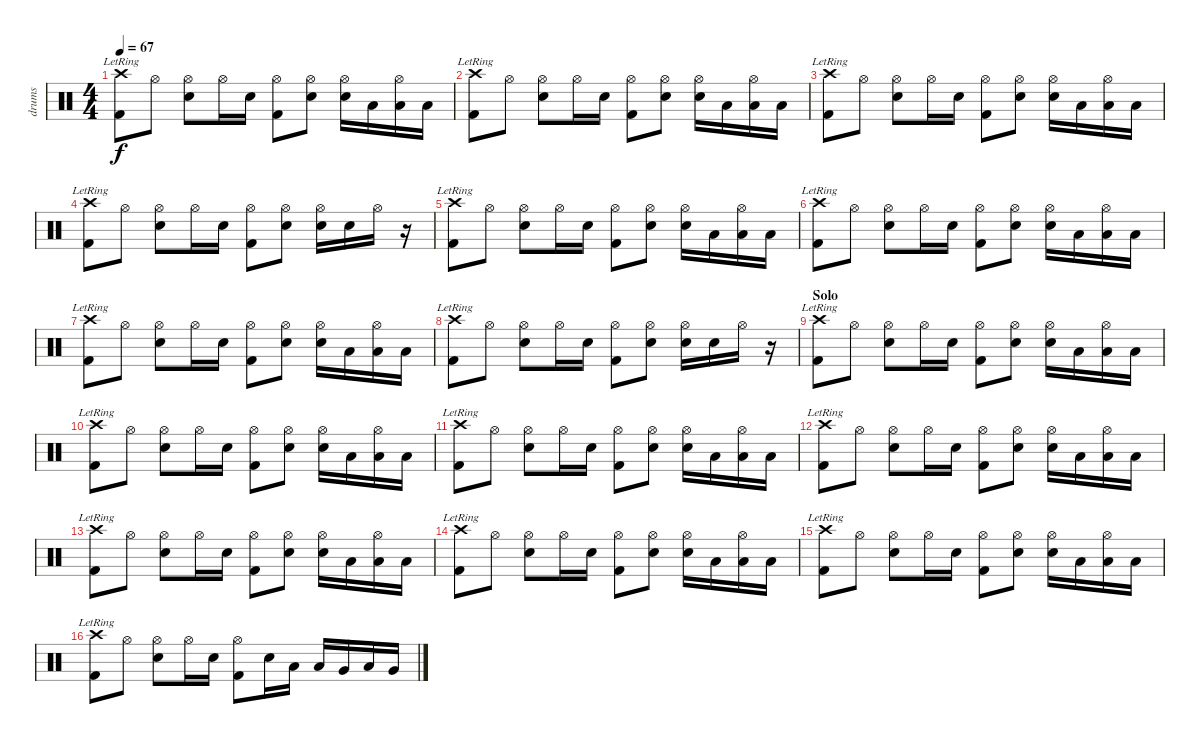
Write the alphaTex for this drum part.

\track ("drums" "drums") {instrument percussion}
\staff {score}
\articulation defaults
\ts (4 4)
\tempo 67
\clef neutral
\ks c
("Crash high (hit)"{lr} "Kick (hit) 2").8{dy f} "Hi-Hat (open)".8 ("Hi-Hat (open)" "Snare (hit) 2").8 "Hi-Hat (open)".16 "Snare (hit) 2".16 ("Hi-Hat (open)" "Kick (hit) 2").8 ("Hi-Hat (open)" "Snare (hit) 2").8 ("Hi-Hat (open)" "Snare (hit) 2").16 "Low Tom (hit)".16 ("Hi-Hat (open)" "Low Tom (hit)").16 "Low Tom (hit)".16 |
("Crash high (hit)"{lr} "Kick (hit) 2").8 "Hi-Hat (open)".8 ("Hi-Hat (open)" "Snare (hit) 2").8 "Hi-Hat (open)".16 "Snare (hit) 2".16 ("Hi-Hat (open)" "Kick (hit) 2").8 ("Hi-Hat (open)" "Snare (hit) 2").8 ("Hi-Hat (open)" "Snare (hit) 2").16 "Low Tom (hit)".16 ("Hi-Hat (open)" "Low Tom (hit)").16 "Low Tom (hit)".16 |
("Crash high (hit)"{lr} "Kick (hit) 2").8 "Hi-Hat (open)".8 ("Hi-Hat (open)" "Snare (hit) 2").8 "Hi-Hat (open)".16 "Snare (hit) 2".16 ("Hi-Hat (open)" "Kick (hit) 2").8 ("Hi-Hat (open)" "Snare (hit) 2").8 ("Hi-Hat (open)" "Snare (hit) 2").16 "Low Tom (hit)".16 ("Hi-Hat (open)" "Low Tom (hit)").16 "Low Tom (hit)".16 |
("Crash high (hit)"{lr} "Kick (hit) 2").8 "Hi-Hat (open)".8 ("Hi-Hat (open)" "Snare (hit) 2").8 "Hi-Hat (open)".16 "Snare (hit) 2".16 ("Hi-Hat (open)" "Kick (hit) 2").8 ("Hi-Hat (open)" "Snare (hit) 2").8 ("Hi-Hat (open)" "Snare (hit) 2").16 "Snare (hit) 2".16 "Hi-Hat (open)".16 r.16 |
("Crash high (hit)"{lr} "Kick (hit) 2").8 "Hi-Hat (open)".8 ("Hi-Hat (open)" "Snare (hit) 2").8 "Hi-Hat (open)".16 "Snare (hit) 2".16 ("Hi-Hat (open)" "Kick (hit) 2").8 ("Hi-Hat (open)" "Snare (hit) 2").8 ("Hi-Hat (open)" "Snare (hit) 2").16 "Low Tom (hit)".16 ("Hi-Hat (open)" "Low Tom (hit)").16 "Low Tom (hit)".16 |
("Crash high (hit)"{lr} "Kick (hit) 2").8 "Hi-Hat (open)".8 ("Hi-Hat (open)" "Snare (hit) 2").8 "Hi-Hat (open)".16 "Snare (hit) 2".16 ("Hi-Hat (open)" "Kick (hit) 2").8 ("Hi-Hat (open)" "Snare (hit) 2").8 ("Hi-Hat (open)" "Snare (hit) 2").16 "Low Tom (hit)".16 ("Hi-Hat (open)" "Low Tom (hit)").16 "Low Tom (hit)".16 |
("Crash high (hit)"{lr} "Kick (hit) 2").8 "Hi-Hat (open)".8 ("Hi-Hat (open)" "Snare (hit) 2").8 "Hi-Hat (open)".16 "Snare (hit) 2".16 ("Hi-Hat (open)" "Kick (hit) 2").8 ("Hi-Hat (open)" "Snare (hit) 2").8 ("Hi-Hat (open)" "Snare (hit) 2").16 "Low Tom (hit)".16 ("Hi-Hat (open)" "Low Tom (hit)").16 "Low Tom (hit)".16 |
("Crash high (hit)"{lr} "Kick (hit) 2").8 "Hi-Hat (open)".8 ("Hi-Hat (open)" "Snare (hit) 2").8 "Hi-Hat (open)".16 "Snare (hit) 2".16 ("Hi-Hat (open)" "Kick (hit) 2").8 ("Hi-Hat (open)" "Snare (hit) 2").8 ("Hi-Hat (open)" "Snare (hit) 2").16 "Snare (hit) 2".16 "Hi-Hat (open)".16 r.16 |
\section ("" "Solo")
("Crash high (hit)"{lr} "Kick (hit) 2").8 "Hi-Hat (open)".8 ("Hi-Hat (open)" "Snare (hit) 2").8 "Hi-Hat (open)".16 "Snare (hit) 2".16 ("Hi-Hat (open)" "Kick (hit) 2").8 ("Hi-Hat (open)" "Snare (hit) 2").8 ("Hi-Hat (open)" "Snare (hit) 2").16 "Low Tom (hit)".16 ("Hi-Hat (open)" "Low Tom (hit)").16 "Low Tom (hit)".16 |
("Crash high (hit)"{lr} "Kick (hit) 2").8 "Hi-Hat (open)".8 ("Hi-Hat (open)" "Snare (hit) 2").8 "Hi-Hat (open)".16 "Snare (hit) 2".16 ("Hi-Hat (open)" "Kick (hit) 2").8 ("Hi-Hat (open)" "Snare (hit) 2").8 ("Hi-Hat (open)" "Snare (hit) 2").16 "Low Tom (hit)".16 ("Hi-Hat (open)" "Low Tom (hit)").16 "Low Tom (hit)".16 |
("Crash high (hit)"{lr} "Kick (hit) 2").8 "Hi-Hat (open)".8 ("Hi-Hat (open)" "Snare (hit) 2").8 "Hi-Hat (open)".16 "Snare (hit) 2".16 ("Hi-Hat (open)" "Kick (hit) 2").8 ("Hi-Hat (open)" "Snare (hit) 2").8 ("Hi-Hat (open)" "Snare (hit) 2").16 "Low Tom (hit)".16 ("Hi-Hat (open)" "Low Tom (hit)").16 "Low Tom (hit)".16 |
("Crash high (hit)"{lr} "Kick (hit) 2").8 "Hi-Hat (open)".8 ("Hi-Hat (open)" "Snare (hit) 2").8 "Hi-Hat (open)".16 "Snare (hit) 2".16 ("Hi-Hat (open)" "Kick (hit) 2").8 ("Hi-Hat (open)" "Snare (hit) 2").8 ("Hi-Hat (open)" "Snare (hit) 2").16 "Low Tom (hit)".16 ("Hi-Hat (open)" "Low Tom (hit)").16 "Low Tom (hit)".16 |
("Crash high (hit)"{lr} "Kick (hit) 2").8 "Hi-Hat (open)".8 ("Hi-Hat (open)" "Snare (hit) 2").8 "Hi-Hat (open)".16 "Snare (hit) 2".16 ("Hi-Hat (open)" "Kick (hit) 2").8 ("Hi-Hat (open)" "Snare (hit) 2").8 ("Hi-Hat (open)" "Snare (hit) 2").16 "Low Tom (hit)".16 ("Hi-Hat (open)" "Low Tom (hit)").16 "Low Tom (hit)".16 |
("Crash high (hit)"{lr} "Kick (hit) 2").8 "Hi-Hat (open)".8 ("Hi-Hat (open)" "Snare (hit) 2").8 "Hi-Hat (open)".16 "Snare (hit) 2".16 ("Hi-Hat (open)" "Kick (hit) 2").8 ("Hi-Hat (open)" "Snare (hit) 2").8 ("Hi-Hat (open)" "Snare (hit) 2").16 "Low Tom (hit)".16 ("Hi-Hat (open)" "Low Tom (hit)").16 "Low Tom (hit)".16 |
("Crash high (hit)"{lr} "Kick (hit) 2").8 "Hi-Hat (open)".8 ("Hi-Hat (open)" "Snare (hit) 2").8 "Hi-Hat (open)".16 "Snare (hit) 2".16 ("Hi-Hat (open)" "Kick (hit) 2").8 ("Hi-Hat (open)" "Snare (hit) 2").8 ("Hi-Hat (open)" "Snare (hit) 2").16 "Low Tom (hit)".16 ("Hi-Hat (open)" "Low Tom (hit)").16 "Low Tom (hit)".16 |
("Crash high (hit)"{lr} "Kick (hit) 2").8 "Hi-Hat (open)".8 ("Hi-Hat (open)" "Snare (hit) 2").8 "Hi-Hat (open)".16 "Snare (hit) 2".16 ("Hi-Hat (open)" "Kick (hit) 2").8 "Snare (hit) 2".16 "Low Tom (hit)".16 "Low Tom (hit)".16 "Very Low Tom (hit)".16 "Low Floor Tom (hit)".16 "Very Low Tom (hit)".16
